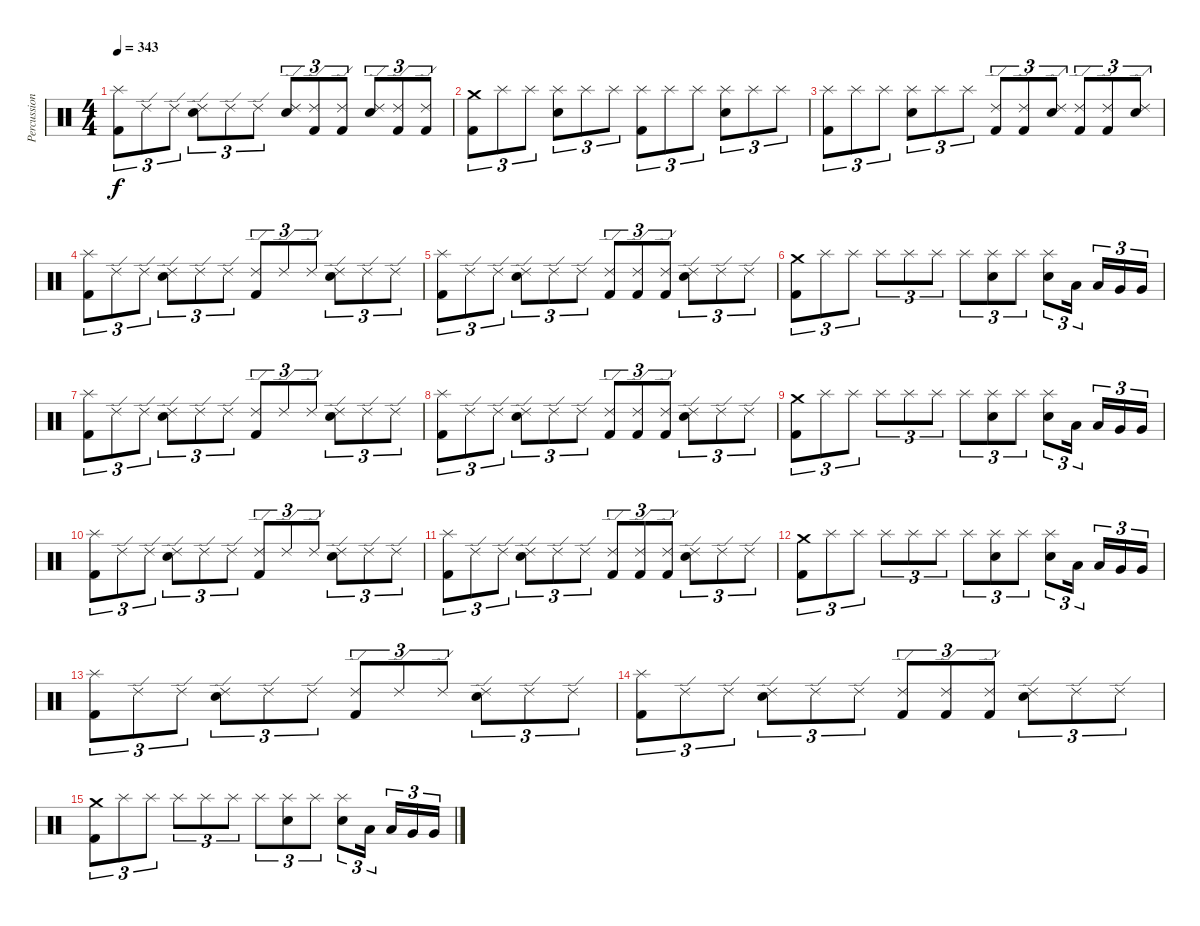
\track ("Percussion" "Percussion") {instrument percussion}
\staff {score}
\articulation defaults
\ts (4 4)
\tempo 343
\clef neutral
\ks c
("Splash (hit)" "Kick (hit) 2").8{tu (3 2) dy f} "Ride (edge) 2".8{tu (3 2)} "Ride (edge) 2".8{tu (3 2)} ("Ride (edge) 2" "Snare (hit) 2").8{tu (3 2)} "Ride (edge) 2".8{tu (3 2)} "Ride (edge) 2".8{tu (3 2)} ("Ride (edge) 2" "Snare (hit) 2").8{tu (3 2)} ("Ride (edge) 2" "Kick (hit) 2").8{tu (3 2)} ("Ride (edge) 2" "Kick (hit) 2").8{tu (3 2)} ("Ride (edge) 2" "Snare (hit) 2").8{tu (3 2)} ("Ride (edge) 2" "Kick (hit) 2").8{tu (3 2)} ("Ride (edge) 2" "Kick (hit) 2").8{tu (3 2)} |
("Crash medium (hit)" "Kick (hit) 2").8{tu (3 2)} "Splash (hit)".8{tu (3 2)} "Splash (hit)".8{tu (3 2)} ("Splash (hit)" "Snare (hit) 2").8{tu (3 2)} "Splash (hit)".8{tu (3 2)} "Splash (hit)".8{tu (3 2)} ("Splash (hit)" "Kick (hit) 2").8{tu (3 2)} "Splash (hit)".8{tu (3 2)} "Splash (hit)".8{tu (3 2)} ("Splash (hit)" "Snare (hit) 2").8{tu (3 2)} "Splash (hit)".8{tu (3 2)} "Splash (hit)".8{tu (3 2)} |
("Splash (hit)" "Kick (hit) 2").8{tu (3 2)} "Splash (hit)".8{tu (3 2)} "Splash (hit)".8{tu (3 2)} ("Splash (hit)" "Snare (hit) 2").8{tu (3 2)} "Splash (hit)".8{tu (3 2)} "Splash (hit)".8{tu (3 2)} ("Ride (edge) 2" "Kick (hit) 2").8{tu (3 2)} ("Ride (edge) 2" "Kick (hit) 2").8{tu (3 2)} ("Ride (edge) 2" "Snare (hit) 2").8{tu (3 2)} ("Ride (edge) 2" "Kick (hit) 2").8{tu (3 2)} ("Ride (edge) 2" "Kick (hit) 2").8{tu (3 2)} ("Ride (edge) 2" "Snare (hit) 2").8{tu (3 2)} |
("Splash (hit)" "Kick (hit) 2").8{tu (3 2)} "Ride (edge) 2".8{tu (3 2)} "Ride (edge) 2".8{tu (3 2)} ("Ride (edge) 2" "Snare (hit) 2").8{tu (3 2)} "Ride (edge) 2".8{tu (3 2)} "Ride (edge) 2".8{tu (3 2)} ("Ride (edge) 2" "Kick (hit) 2").8{tu (3 2)} "Ride (edge) 2".8{tu (3 2)} "Ride (edge) 2".8{tu (3 2)} ("Ride (edge) 2" "Snare (hit) 2").8{tu (3 2)} "Ride (edge) 2".8{tu (3 2)} "Ride (edge) 2".8{tu (3 2)} |
("Splash (hit)" "Kick (hit) 2").8{tu (3 2)} "Ride (edge) 2".8{tu (3 2)} "Ride (edge) 2".8{tu (3 2)} ("Ride (edge) 2" "Snare (hit) 2").8{tu (3 2)} "Ride (edge) 2".8{tu (3 2)} "Ride (edge) 2".8{tu (3 2)} ("Ride (edge) 2" "Kick (hit) 2").8{tu (3 2)} ("Ride (edge) 2" "Kick (hit) 2").8{tu (3 2)} ("Ride (edge) 2" "Kick (hit) 2").8{tu (3 2)} ("Ride (edge) 2" "Snare (hit) 2").8{tu (3 2)} "Ride (edge) 2".8{tu (3 2)} "Ride (edge) 2".8{tu (3 2)} |
("Crash medium (hit)" "Kick (hit) 2").8{tu (3 2)} "Splash (hit)".8{tu (3 2)} "Splash (hit)".8{tu (3 2)} "Splash (hit)".8{tu (3 2)} "Splash (hit)".8{tu (3 2)} "Splash (hit)".8{tu (3 2)} "Splash (hit)".8{tu (3 2)} ("Splash (hit)" "Snare (hit) 2").8{tu (3 2)} "Splash (hit)".8{tu (3 2)} ("Splash (hit)" "Snare (hit) 2").8{tu (3 2)} "Low Tom (hit)".16{tu (3 2)} "Low Tom (hit)".16{tu (3 2)} "Very Low Tom (hit)".16{tu (3 2)} "Very Low Tom (hit)".16{tu (3 2)} |
("Splash (hit)" "Kick (hit) 2").8{tu (3 2)} "Ride (edge) 2".8{tu (3 2)} "Ride (edge) 2".8{tu (3 2)} ("Ride (edge) 2" "Snare (hit) 2").8{tu (3 2)} "Ride (edge) 2".8{tu (3 2)} "Ride (edge) 2".8{tu (3 2)} ("Ride (edge) 2" "Kick (hit) 2").8{tu (3 2)} "Ride (edge) 2".8{tu (3 2)} "Ride (edge) 2".8{tu (3 2)} ("Ride (edge) 2" "Snare (hit) 2").8{tu (3 2)} "Ride (edge) 2".8{tu (3 2)} "Ride (edge) 2".8{tu (3 2)} |
("Splash (hit)" "Kick (hit) 2").8{tu (3 2)} "Ride (edge) 2".8{tu (3 2)} "Ride (edge) 2".8{tu (3 2)} ("Ride (edge) 2" "Snare (hit) 2").8{tu (3 2)} "Ride (edge) 2".8{tu (3 2)} "Ride (edge) 2".8{tu (3 2)} ("Ride (edge) 2" "Kick (hit) 2").8{tu (3 2)} ("Ride (edge) 2" "Kick (hit) 2").8{tu (3 2)} ("Ride (edge) 2" "Kick (hit) 2").8{tu (3 2)} ("Ride (edge) 2" "Snare (hit) 2").8{tu (3 2)} "Ride (edge) 2".8{tu (3 2)} "Ride (edge) 2".8{tu (3 2)} |
("Crash medium (hit)" "Kick (hit) 2").8{tu (3 2)} "Splash (hit)".8{tu (3 2)} "Splash (hit)".8{tu (3 2)} "Splash (hit)".8{tu (3 2)} "Splash (hit)".8{tu (3 2)} "Splash (hit)".8{tu (3 2)} "Splash (hit)".8{tu (3 2)} ("Splash (hit)" "Snare (hit) 2").8{tu (3 2)} "Splash (hit)".8{tu (3 2)} ("Splash (hit)" "Snare (hit) 2").8{tu (3 2)} "Low Tom (hit)".16{tu (3 2)} "Low Tom (hit)".16{tu (3 2)} "Very Low Tom (hit)".16{tu (3 2)} "Very Low Tom (hit)".16{tu (3 2)} |
("Splash (hit)" "Kick (hit) 2").8{tu (3 2)} "Ride (edge) 2".8{tu (3 2)} "Ride (edge) 2".8{tu (3 2)} ("Ride (edge) 2" "Snare (hit) 2").8{tu (3 2)} "Ride (edge) 2".8{tu (3 2)} "Ride (edge) 2".8{tu (3 2)} ("Ride (edge) 2" "Kick (hit) 2").8{tu (3 2)} "Ride (edge) 2".8{tu (3 2)} "Ride (edge) 2".8{tu (3 2)} ("Ride (edge) 2" "Snare (hit) 2").8{tu (3 2)} "Ride (edge) 2".8{tu (3 2)} "Ride (edge) 2".8{tu (3 2)} |
("Splash (hit)" "Kick (hit) 2").8{tu (3 2)} "Ride (edge) 2".8{tu (3 2)} "Ride (edge) 2".8{tu (3 2)} ("Ride (edge) 2" "Snare (hit) 2").8{tu (3 2)} "Ride (edge) 2".8{tu (3 2)} "Ride (edge) 2".8{tu (3 2)} ("Ride (edge) 2" "Kick (hit) 2").8{tu (3 2)} ("Ride (edge) 2" "Kick (hit) 2").8{tu (3 2)} ("Ride (edge) 2" "Kick (hit) 2").8{tu (3 2)} ("Ride (edge) 2" "Snare (hit) 2").8{tu (3 2)} "Ride (edge) 2".8{tu (3 2)} "Ride (edge) 2".8{tu (3 2)} |
("Crash medium (hit)" "Kick (hit) 2").8{tu (3 2)} "Splash (hit)".8{tu (3 2)} "Splash (hit)".8{tu (3 2)} "Splash (hit)".8{tu (3 2)} "Splash (hit)".8{tu (3 2)} "Splash (hit)".8{tu (3 2)} "Splash (hit)".8{tu (3 2)} ("Splash (hit)" "Snare (hit) 2").8{tu (3 2)} "Splash (hit)".8{tu (3 2)} ("Splash (hit)" "Snare (hit) 2").8{tu (3 2)} "Low Tom (hit)".16{tu (3 2)} "Low Tom (hit)".16{tu (3 2)} "Very Low Tom (hit)".16{tu (3 2)} "Very Low Tom (hit)".16{tu (3 2)} |
("Splash (hit)" "Kick (hit) 2").8{tu (3 2)} "Ride (edge) 2".8{tu (3 2)} "Ride (edge) 2".8{tu (3 2)} ("Ride (edge) 2" "Snare (hit) 2").8{tu (3 2)} "Ride (edge) 2".8{tu (3 2)} "Ride (edge) 2".8{tu (3 2)} ("Ride (edge) 2" "Kick (hit) 2").8{tu (3 2)} "Ride (edge) 2".8{tu (3 2)} "Ride (edge) 2".8{tu (3 2)} ("Ride (edge) 2" "Snare (hit) 2").8{tu (3 2)} "Ride (edge) 2".8{tu (3 2)} "Ride (edge) 2".8{tu (3 2)} |
("Splash (hit)" "Kick (hit) 2").8{tu (3 2)} "Ride (edge) 2".8{tu (3 2)} "Ride (edge) 2".8{tu (3 2)} ("Ride (edge) 2" "Snare (hit) 2").8{tu (3 2)} "Ride (edge) 2".8{tu (3 2)} "Ride (edge) 2".8{tu (3 2)} ("Ride (edge) 2" "Kick (hit) 2").8{tu (3 2)} ("Ride (edge) 2" "Kick (hit) 2").8{tu (3 2)} ("Ride (edge) 2" "Kick (hit) 2").8{tu (3 2)} ("Ride (edge) 2" "Snare (hit) 2").8{tu (3 2)} "Ride (edge) 2".8{tu (3 2)} "Ride (edge) 2".8{tu (3 2)} |
("Crash medium (hit)" "Kick (hit) 2").8{tu (3 2)} "Splash (hit)".8{tu (3 2)} "Splash (hit)".8{tu (3 2)} "Splash (hit)".8{tu (3 2)} "Splash (hit)".8{tu (3 2)} "Splash (hit)".8{tu (3 2)} "Splash (hit)".8{tu (3 2)} ("Splash (hit)" "Snare (hit) 2").8{tu (3 2)} "Splash (hit)".8{tu (3 2)} ("Splash (hit)" "Snare (hit) 2").8{tu (3 2)} "Low Tom (hit)".16{tu (3 2)} "Low Tom (hit)".16{tu (3 2)} "Very Low Tom (hit)".16{tu (3 2)} "Very Low Tom (hit)".16{tu (3 2)}
